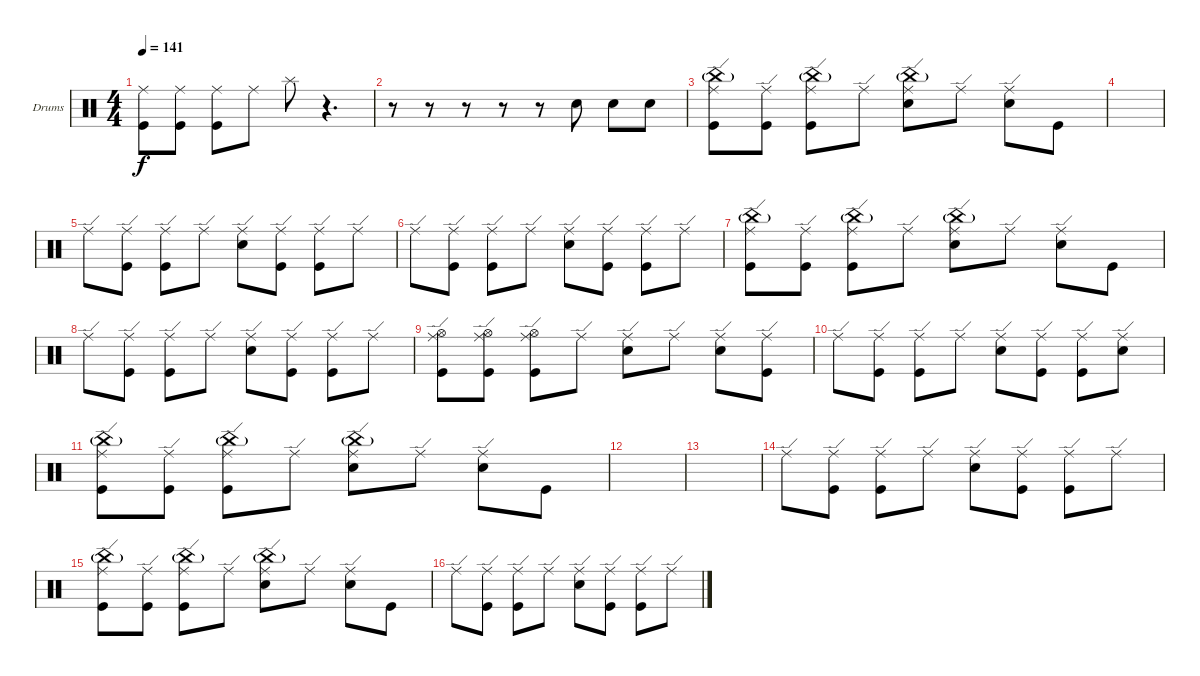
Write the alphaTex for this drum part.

\bracketExtendMode groupsimilarinstruments
\firstSystemTrackNameOrientation horizontal
\otherSystemsTrackNameOrientation horizontal
\track ("Drumkit" "Drums") {instrument percussion}
\staff {score}
\articulation defaults
\ts (4 4)
\tempo 141
\clef neutral
\ks c
("Ride (middle)" "Kick (hit)").8{dy f} ("Ride (middle)" "Kick (hit)").8 ("Ride (middle)" "Kick (hit)").8 "Ride (middle)".8 "Splash (hit)".8 r.4{d} |
r.8 r.8 r.8 r.8 r.8 "Snare (hit) 2".8 "Snare (hit) 2".8 "Snare (hit) 2".8 |
("Kick (hit)" "Ride (edge)" "China (hit)"{g}).8 ("Kick (hit)" "Ride (edge)").8 ("Kick (hit)" "Ride (edge)" "China (hit)"{g}).8 "Ride (edge)".8 ("Snare (hit) 2" "Ride (edge)" "China (hit)"{g}).8 "Ride (edge)".8 ("Ride (edge)" "Snare (hit) 2").8 "Kick (hit)".8 |
|
"Ride (edge)".8 ("Kick (hit)" "Ride (edge)").8 ("Ride (edge)" "Kick (hit)").8 "Ride (edge)".8 ("Ride (edge)" "Snare (hit) 2").8 ("Kick (hit)" "Ride (edge)").8 ("Ride (edge)" "Kick (hit)").8 "Ride (edge)".8 |
"Ride (edge)".8 ("Kick (hit)" "Ride (edge)").8 ("Ride (edge)" "Kick (hit)").8 "Ride (edge)".8 ("Ride (edge)" "Snare (hit) 2").8 ("Kick (hit)" "Ride (edge)").8 ("Ride (edge)" "Kick (hit)").8 "Ride (edge)".8 |
("Kick (hit)" "Ride (edge)" "China (hit)"{g}).8 ("Kick (hit)" "Ride (edge)").8 ("Kick (hit)" "Ride (edge)" "China (hit)"{g}).8 "Ride (edge)".8 ("Snare (hit) 2" "Ride (edge)" "China (hit)"{g}).8 "Ride (edge)".8 ("Ride (edge)" "Snare (hit) 2").8 "Kick (hit)".8 |
"Ride (edge)".8 ("Kick (hit)" "Ride (edge)").8 ("Ride (edge)" "Kick (hit)").8 "Ride (edge)".8 ("Ride (edge)" "Snare (hit) 2").8 ("Kick (hit)" "Ride (edge)").8 ("Ride (edge)" "Kick (hit)").8 "Ride (edge)".8 |
("Hi-Hat (open)" "Kick (hit)" "Ride (edge)").8 ("Hi-Hat (open)" "Kick (hit)" "Ride (edge)").8 ("Hi-Hat (open)" "Kick (hit)" "Ride (edge)").8 "Ride (edge)".8 ("Ride (edge)" "Snare (hit) 2").8 "Ride (edge)".8 ("Ride (edge)" "Snare (hit) 2").8 ("Ride (edge)" "Kick (hit)").8 |
"Ride (edge)".8 ("Kick (hit)" "Ride (edge)").8 ("Ride (edge)" "Kick (hit)").8 "Ride (edge)".8 ("Ride (edge)" "Snare (hit) 2").8 ("Kick (hit)" "Ride (edge)").8 ("Ride (edge)" "Kick (hit)").8 ("Ride (edge)" "Snare (hit) 2").8 |
("Kick (hit)" "Ride (edge)" "China (hit)"{g}).8 ("Kick (hit)" "Ride (edge)").8 ("Kick (hit)" "Ride (edge)" "China (hit)"{g}).8 "Ride (edge)".8 ("Snare (hit) 2" "Ride (edge)" "China (hit)"{g}).8 "Ride (edge)".8 ("Ride (edge)" "Snare (hit) 2").8 "Kick (hit)".8 |
|
|
"Ride (edge)".8 ("Kick (hit)" "Ride (edge)").8 ("Ride (edge)" "Kick (hit)").8 "Ride (edge)".8 ("Ride (edge)" "Snare (hit) 2").8 ("Kick (hit)" "Ride (edge)").8 ("Ride (edge)" "Kick (hit)").8 "Ride (edge)".8 |
("Kick (hit)" "Ride (edge)" "China (hit)"{g}).8 ("Kick (hit)" "Ride (edge)").8 ("Kick (hit)" "Ride (edge)" "China (hit)"{g}).8 "Ride (edge)".8 ("Snare (hit) 2" "Ride (edge)" "China (hit)"{g}).8 "Ride (edge)".8 ("Ride (edge)" "Snare (hit) 2").8 "Kick (hit)".8 |
"Ride (edge)".8 ("Kick (hit)" "Ride (edge)").8 ("Ride (edge)" "Kick (hit)").8 "Ride (edge)".8 ("Ride (edge)" "Snare (hit) 2").8 ("Kick (hit)" "Ride (edge)").8 ("Ride (edge)" "Kick (hit)").8 "Ride (edge)".8
